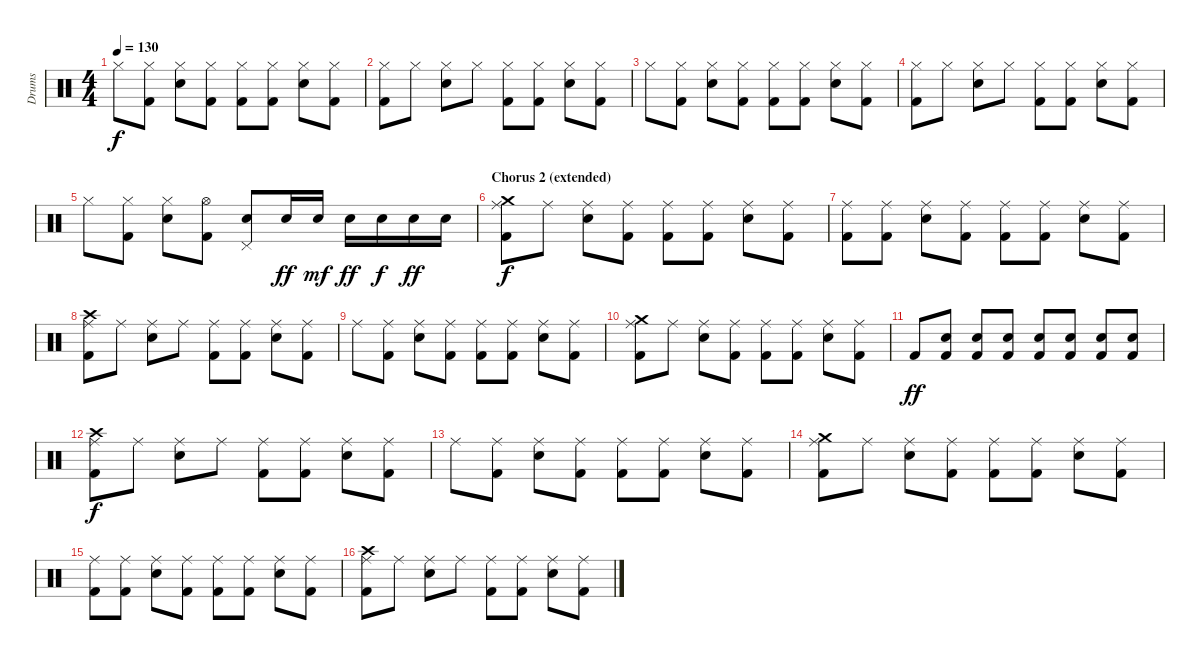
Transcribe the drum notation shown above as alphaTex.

\track ("Drums" "Drums") {instrument percussion}
\staff {score}
\articulation defaults
\ts (4 4)
\tempo 130
\clef neutral
\ks c "Hi-Hat (closed)".8{dy f}
("Hi-Hat (closed)" "Kick (hit) 2").8 ("Hi-Hat (closed)" "Electric Snare (hit)").8 ("Hi-Hat (closed)" "Kick (hit) 2").8 ("Hi-Hat (closed)" "Kick (hit) 2").8 ("Hi-Hat (closed)" "Kick (hit) 2").8 ("Hi-Hat (closed)" "Electric Snare (hit)").8 ("Hi-Hat (closed)" "Kick (hit) 2").8 |
("Hi-Hat (closed)" "Kick (hit) 2").8 "Hi-Hat (closed)".8 ("Hi-Hat (closed)" "Electric Snare (hit)").8 "Hi-Hat (closed)".8 ("Hi-Hat (closed)" "Kick (hit) 2").8 ("Hi-Hat (closed)" "Kick (hit) 2").8 ("Hi-Hat (closed)" "Electric Snare (hit)").8 ("Hi-Hat (closed)" "Kick (hit) 2").8 |
"Hi-Hat (closed)".8 ("Hi-Hat (closed)" "Kick (hit) 2").8 ("Hi-Hat (closed)" "Electric Snare (hit)").8 ("Hi-Hat (closed)" "Kick (hit) 2").8 ("Hi-Hat (closed)" "Kick (hit) 2").8 ("Hi-Hat (closed)" "Kick (hit) 2").8 ("Hi-Hat (closed)" "Electric Snare (hit)").8 ("Hi-Hat (closed)" "Kick (hit) 2").8 |
("Hi-Hat (closed)" "Kick (hit) 2").8 "Hi-Hat (closed)".8 ("Hi-Hat (closed)" "Electric Snare (hit)").8 "Hi-Hat (closed)".8 ("Hi-Hat (closed)" "Kick (hit) 2").8 ("Hi-Hat (closed)" "Kick (hit) 2").8 ("Hi-Hat (closed)" "Electric Snare (hit)").8 ("Hi-Hat (closed)" "Kick (hit) 2").8 |
"Hi-Hat (closed)".8 ("Hi-Hat (closed)" "Kick (hit) 2").8 ("Hi-Hat (closed)" "Electric Snare (hit)").8 ("Hi-Hat (open)" "Kick (hit) 2").8 ("Pedal Hi-Hat (hit)" "Electric Snare (hit)").8 "Electric Snare (hit)".16{dy ff} "Electric Snare (hit)".16{dy mf} "Electric Snare (hit)".16{dy ff} "Electric Snare (hit)".16{dy f} "Electric Snare (hit)".16{dy ff} "Electric Snare (hit)".16 |
\section ("" "Chorus 2 (extended)")
("Ride (middle)" "Crash medium (hit)" "Kick (hit) 2").8{dy f} "Ride (middle)".8 ("Ride (middle)" "Electric Snare (hit)").8 ("Ride (middle)" "Kick (hit) 2").8 ("Ride (middle)" "Kick (hit) 2").8 ("Ride (middle)" "Kick (hit) 2").8 ("Ride (middle)" "Electric Snare (hit)").8 ("Ride (middle)" "Kick (hit) 2").8 |
("Ride (middle)" "Kick (hit) 2").8 ("Ride (middle)" "Kick (hit) 2").8 ("Ride (middle)" "Electric Snare (hit)").8 ("Ride (middle)" "Kick (hit) 2").8 ("Ride (middle)" "Kick (hit) 2").8 ("Ride (middle)" "Kick (hit) 2").8 ("Ride (middle)" "Electric Snare (hit)").8 ("Ride (middle)" "Kick (hit) 2").8 |
("Ride (middle)" "Crash high (hit)" "Kick (hit) 2").8 "Ride (middle)".8 ("Ride (middle)" "Electric Snare (hit)").8 "Ride (middle)".8 ("Ride (middle)" "Kick (hit) 2").8 ("Ride (middle)" "Kick (hit) 2").8 ("Ride (middle)" "Electric Snare (hit)").8 ("Ride (middle)" "Kick (hit) 2").8 |
"Ride (middle)".8 ("Ride (middle)" "Kick (hit) 2").8 ("Ride (middle)" "Electric Snare (hit)").8 ("Ride (middle)" "Kick (hit) 2").8 ("Ride (middle)" "Kick (hit) 2").8 ("Ride (middle)" "Kick (hit) 2").8 ("Ride (middle)" "Electric Snare (hit)").8 ("Ride (middle)" "Kick (hit) 2").8 |
("Ride (middle)" "Crash medium (hit)" "Kick (hit) 2").8 "Ride (middle)".8 ("Ride (middle)" "Electric Snare (hit)").8 ("Ride (middle)" "Kick (hit) 2").8 ("Ride (middle)" "Kick (hit) 2").8 ("Ride (middle)" "Kick (hit) 2").8 ("Ride (middle)" "Electric Snare (hit)").8 ("Ride (middle)" "Kick (hit) 2").8 |
"Kick (hit) 2".8{dy ff} ("Electric Snare (hit)" "Kick (hit) 2").8 ("Electric Snare (hit)" "Kick (hit) 2").8 ("Electric Snare (hit)" "Kick (hit) 2").8 ("Electric Snare (hit)" "Kick (hit) 2").8 ("Electric Snare (hit)" "Kick (hit) 2").8 ("Electric Snare (hit)" "Kick (hit) 2").8 ("Electric Snare (hit)" "Kick (hit) 2").8 |
("Ride (middle)" "Crash high (hit)" "Kick (hit) 2").8{dy f} "Ride (middle)".8 ("Ride (middle)" "Electric Snare (hit)").8 "Ride (middle)".8 ("Ride (middle)" "Kick (hit) 2").8 ("Ride (middle)" "Kick (hit) 2").8 ("Ride (middle)" "Electric Snare (hit)").8 ("Ride (middle)" "Kick (hit) 2").8 |
"Ride (middle)".8 ("Ride (middle)" "Kick (hit) 2").8 ("Ride (middle)" "Electric Snare (hit)").8 ("Ride (middle)" "Kick (hit) 2").8 ("Ride (middle)" "Kick (hit) 2").8 ("Ride (middle)" "Kick (hit) 2").8 ("Ride (middle)" "Electric Snare (hit)").8 ("Ride (middle)" "Kick (hit) 2").8 |
("Ride (middle)" "Crash medium (hit)" "Kick (hit) 2").8 "Ride (middle)".8 ("Ride (middle)" "Electric Snare (hit)").8 ("Ride (middle)" "Kick (hit) 2").8 ("Ride (middle)" "Kick (hit) 2").8 ("Ride (middle)" "Kick (hit) 2").8 ("Ride (middle)" "Electric Snare (hit)").8 ("Ride (middle)" "Kick (hit) 2").8 |
("Ride (middle)" "Kick (hit) 2").8 ("Ride (middle)" "Kick (hit) 2").8 ("Ride (middle)" "Electric Snare (hit)").8 ("Ride (middle)" "Kick (hit) 2").8 ("Ride (middle)" "Kick (hit) 2").8 ("Ride (middle)" "Kick (hit) 2").8 ("Ride (middle)" "Electric Snare (hit)").8 ("Ride (middle)" "Kick (hit) 2").8 |
("Ride (middle)" "Crash high (hit)" "Kick (hit) 2").8 "Ride (middle)".8 ("Ride (middle)" "Electric Snare (hit)").8 "Ride (middle)".8 ("Ride (middle)" "Kick (hit) 2").8 ("Ride (middle)" "Kick (hit) 2").8 ("Ride (middle)" "Electric Snare (hit)").8 ("Ride (middle)" "Kick (hit) 2").8
